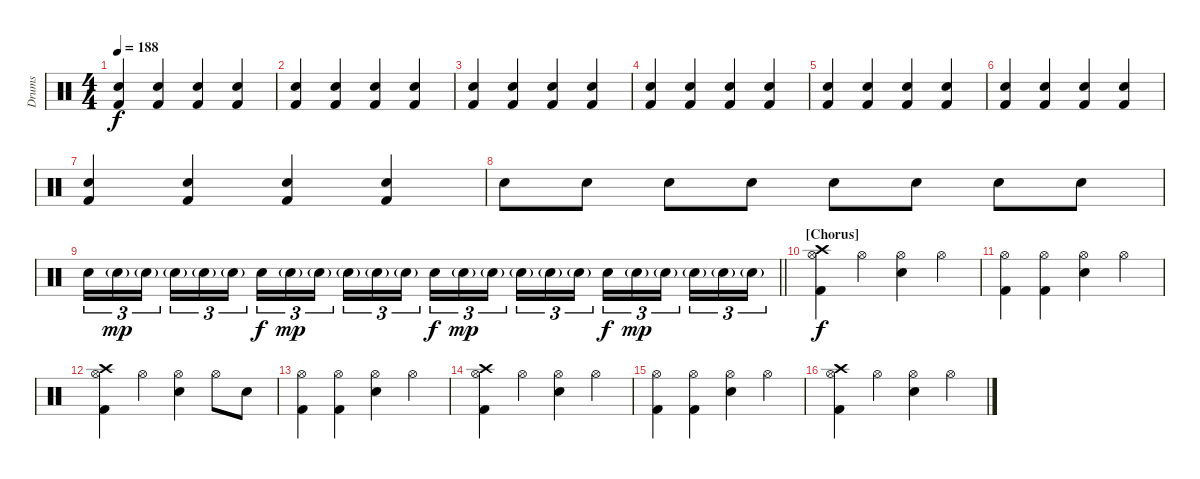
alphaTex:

\track ("Drums" "Drums") {instrument percussion}
\staff {score}
\articulation defaults
\ts (4 4)
\tempo 188
\clef neutral
\ks c
("Electric Snare (hit)" "Kick (hit) 2").4{dy f} ("Electric Snare (hit)" "Kick (hit) 2").4 ("Electric Snare (hit)" "Kick (hit) 2").4 ("Electric Snare (hit)" "Kick (hit) 2").4 |
("Electric Snare (hit)" "Kick (hit) 2").4{volume 16} ("Electric Snare (hit)" "Kick (hit) 2").4 ("Electric Snare (hit)" "Kick (hit) 2").4 ("Electric Snare (hit)" "Kick (hit) 2").4 |
("Electric Snare (hit)" "Kick (hit) 2").4 ("Electric Snare (hit)" "Kick (hit) 2").4 ("Electric Snare (hit)" "Kick (hit) 2").4 ("Electric Snare (hit)" "Kick (hit) 2").4 |
("Electric Snare (hit)" "Kick (hit) 2").4 ("Electric Snare (hit)" "Kick (hit) 2").4 ("Electric Snare (hit)" "Kick (hit) 2").4 ("Electric Snare (hit)" "Kick (hit) 2").4 |
("Electric Snare (hit)" "Kick (hit) 2").4 ("Electric Snare (hit)" "Kick (hit) 2").4 ("Electric Snare (hit)" "Kick (hit) 2").4 ("Electric Snare (hit)" "Kick (hit) 2").4 |
("Electric Snare (hit)" "Kick (hit) 2").4 ("Electric Snare (hit)" "Kick (hit) 2").4 ("Electric Snare (hit)" "Kick (hit) 2").4 ("Electric Snare (hit)" "Kick (hit) 2").4 |
("Electric Snare (hit)" "Kick (hit) 2").4 ("Electric Snare (hit)" "Kick (hit) 2").4 ("Electric Snare (hit)" "Kick (hit) 2").4 ("Electric Snare (hit)" "Kick (hit) 2").4 |
"Electric Snare (hit)".8 "Electric Snare (hit)".8 "Electric Snare (hit)".8 "Electric Snare (hit)".8 "Electric Snare (hit)".8 "Electric Snare (hit)".8 "Electric Snare (hit)".8 "Electric Snare (hit)".8 |
\barLineRight lightlight "Electric Snare (hit)".16{tu (3 2)} "Electric Snare (hit)"{g}.16{tu (3 2) dy mp} "Electric Snare (hit)"{g}.16{tu (3 2) beam splitsecondary} "Electric Snare (hit)"{g}.16{tu (3 2)} "Electric Snare (hit)"{g}.16{tu (3 2)} "Electric Snare (hit)"{g}.16{tu (3 2)} "Electric Snare (hit)".16{tu (3 2) dy f} "Electric Snare (hit)"{g}.16{tu (3 2) dy mp} "Electric Snare (hit)"{g}.16{tu (3 2) beam splitsecondary} "Electric Snare (hit)"{g}.16{tu (3 2)} "Electric Snare (hit)"{g}.16{tu (3 2)} "Electric Snare (hit)"{g}.16{tu (3 2)} "Electric Snare (hit)".16{tu (3 2) dy f} "Electric Snare (hit)"{g}.16{tu (3 2) dy mp} "Electric Snare (hit)"{g}.16{tu (3 2) beam splitsecondary} "Electric Snare (hit)"{g}.16{tu (3 2)} "Electric Snare (hit)"{g}.16{tu (3 2)} "Electric Snare (hit)"{g}.16{tu (3 2)} "Electric Snare (hit)".16{tu (3 2) dy f} "Electric Snare (hit)"{g}.16{tu (3 2) dy mp} "Electric Snare (hit)"{g}.16{tu (3 2) beam splitsecondary} "Electric Snare (hit)"{g}.16{tu (3 2)} "Electric Snare (hit)"{g}.16{tu (3 2)} "Electric Snare (hit)"{g}.16{tu (3 2)}
|
\section ("" "[Chorus]")
("Crash high (hit)" "Hi-Hat (open)" "Kick (hit) 2").4{dy f} "Hi-Hat (open)".4 ("Hi-Hat (open)" "Electric Snare (hit)").4 "Hi-Hat (open)".4 |
("Hi-Hat (open)" "Kick (hit) 2").4 ("Hi-Hat (open)" "Kick (hit) 2").4 ("Hi-Hat (open)" "Electric Snare (hit)").4 "Hi-Hat (open)".4 |
("Crash high (hit)" "Hi-Hat (open)" "Kick (hit) 2").4 "Hi-Hat (open)".4 ("Hi-Hat (open)" "Electric Snare (hit)").4 "Hi-Hat (open)".8 "Electric Snare (hit)".8 |
("Hi-Hat (open)" "Kick (hit) 2").4 ("Hi-Hat (open)" "Kick (hit) 2").4 ("Hi-Hat (open)" "Electric Snare (hit)").4 "Hi-Hat (open)".4 |
("Crash high (hit)" "Hi-Hat (open)" "Kick (hit) 2").4 "Hi-Hat (open)".4 ("Hi-Hat (open)" "Electric Snare (hit)").4 "Hi-Hat (open)".4 |
("Hi-Hat (open)" "Kick (hit) 2").4 ("Hi-Hat (open)" "Kick (hit) 2").4 ("Hi-Hat (open)" "Electric Snare (hit)").4 "Hi-Hat (open)".4 |
("Crash high (hit)" "Hi-Hat (open)" "Kick (hit) 2").4 "Hi-Hat (open)".4 ("Hi-Hat (open)" "Electric Snare (hit)").4 "Hi-Hat (open)".4
